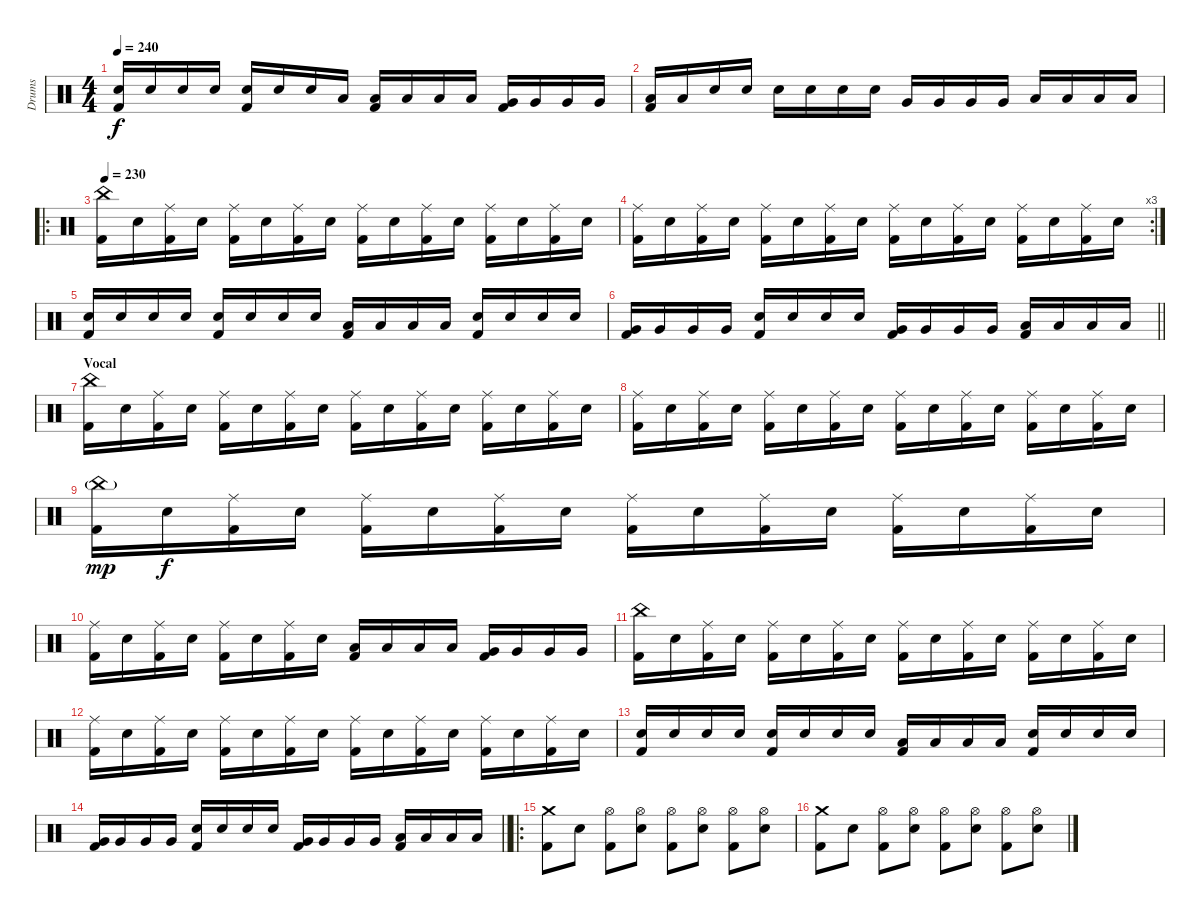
\track ("Drums" "Drums") {instrument percussion}
\staff {score}
\articulation defaults
\ts (4 4)
\tempo 240
\clef neutral
\ks c
("Electric Snare (hit)" "Kick (hit) 2").16{dy f} "Electric Snare (hit)".16 "Electric Snare (hit)".16 "Electric Snare (hit)".16 ("Electric Snare (hit)" "Kick (hit) 2").16 "Electric Snare (hit)".16 "Electric Snare (hit)".16 "Low Tom (hit)".16 ("Low Tom (hit)" "Kick (hit) 2").16 "Low Tom (hit)".16 "Low Tom (hit)".16 "Low Tom (hit)".16 ("Very Low Tom (hit)" "Kick (hit) 2").16 "Very Low Tom (hit)".16 "Very Low Tom (hit)".16 "Very Low Tom (hit)".16 |
("Low Floor Tom (hit)" "Kick (hit) 2").16 "Low Floor Tom (hit)".16 "Electric Snare (hit)".16 "Electric Snare (hit)".16 "Electric Snare (hit)".16 "Electric Snare (hit)".16 "Electric Snare (hit)".16 "Electric Snare (hit)".16 "Very Low Tom (hit)".16 "Very Low Tom (hit)".16 "Very Low Tom (hit)".16 "Very Low Tom (hit)".16 "Low Floor Tom (hit)".16 "Low Floor Tom (hit)".16 "Low Floor Tom (hit)".16 "Low Floor Tom (hit)".16 |
\ro
\tempo 230
("China (hit)" "Kick (hit) 2").16 "Electric Snare (hit)".16 ("Ride (middle)" "Kick (hit) 2").16 "Electric Snare (hit)".16 ("Ride (middle)" "Kick (hit) 2").16 "Electric Snare (hit)".16 ("Ride (middle)" "Kick (hit) 2").16 "Electric Snare (hit)".16 ("Ride (middle)" "Kick (hit) 2").16 "Electric Snare (hit)".16 ("Ride (middle)" "Kick (hit) 2").16 "Electric Snare (hit)".16 ("Ride (middle)" "Kick (hit) 2").16 "Electric Snare (hit)".16 ("Ride (middle)" "Kick (hit) 2").16 "Electric Snare (hit)".16 |
\rc 3
("Ride (middle)" "Kick (hit) 2").16 "Electric Snare (hit)".16 ("Ride (middle)" "Kick (hit) 2").16 "Electric Snare (hit)".16 ("Ride (middle)" "Kick (hit) 2").16 "Electric Snare (hit)".16 ("Ride (middle)" "Kick (hit) 2").16 "Electric Snare (hit)".16 ("Ride (middle)" "Kick (hit) 2").16 "Electric Snare (hit)".16 ("Ride (middle)" "Kick (hit) 2").16 "Electric Snare (hit)".16 ("Ride (middle)" "Kick (hit) 2").16 "Electric Snare (hit)".16 ("Ride (middle)" "Kick (hit) 2").16 "Electric Snare (hit)".16 |
("Electric Snare (hit)" "Kick (hit) 2").16 "Electric Snare (hit)".16 "Electric Snare (hit)".16 "Electric Snare (hit)".16 ("Electric Snare (hit)" "Kick (hit) 2").16 "Electric Snare (hit)".16 "Electric Snare (hit)".16 "Electric Snare (hit)".16 ("Low Tom (hit)" "Kick (hit) 2").16 "Low Tom (hit)".16 "Low Tom (hit)".16 "Low Tom (hit)".16 ("Electric Snare (hit)" "Kick (hit) 2").16 "Electric Snare (hit)".16 "Electric Snare (hit)".16 "Electric Snare (hit)".16 |
\barLineRight lightlight
("Very Low Tom (hit)" "Kick (hit) 2").16 "Very Low Tom (hit)".16 "Very Low Tom (hit)".16 "Very Low Tom (hit)".16 ("Electric Snare (hit)" "Kick (hit) 2").16 "Electric Snare (hit)".16 "Electric Snare (hit)".16 "Electric Snare (hit)".16 ("Very Low Tom (hit)" "Kick (hit) 2").16 "Very Low Tom (hit)".16 "Very Low Tom (hit)".16 "Very Low Tom (hit)".16 ("Low Floor Tom (hit)" "Kick (hit) 2").16 "Low Floor Tom (hit)".16 "Low Floor Tom (hit)".16 "Low Floor Tom (hit)".16 |
\section ("" "Vocal")
("China (hit)" "Kick (hit) 2").16 "Electric Snare (hit)".16 ("Ride (middle)" "Kick (hit) 2").16 "Electric Snare (hit)".16 ("Ride (middle)" "Kick (hit) 2").16 "Electric Snare (hit)".16 ("Ride (middle)" "Kick (hit) 2").16 "Electric Snare (hit)".16 ("Ride (middle)" "Kick (hit) 2").16 "Electric Snare (hit)".16 ("Ride (middle)" "Kick (hit) 2").16 "Electric Snare (hit)".16 ("Ride (middle)" "Kick (hit) 2").16 "Electric Snare (hit)".16 ("Ride (middle)" "Kick (hit) 2").16 "Electric Snare (hit)".16 |
("Ride (middle)" "Kick (hit) 2").16 "Electric Snare (hit)".16 ("Ride (middle)" "Kick (hit) 2").16 "Electric Snare (hit)".16 ("Ride (middle)" "Kick (hit) 2").16 "Electric Snare (hit)".16 ("Ride (middle)" "Kick (hit) 2").16 "Electric Snare (hit)".16 ("Ride (middle)" "Kick (hit) 2").16 "Electric Snare (hit)".16 ("Ride (middle)" "Kick (hit) 2").16 "Electric Snare (hit)".16 ("Ride (middle)" "Kick (hit) 2").16 "Electric Snare (hit)".16 ("Ride (middle)" "Kick (hit) 2").16 "Electric Snare (hit)".16 |
("China (hit)"{g} "Kick (hit) 2").16{dy mp} "Electric Snare (hit)".16{dy f} ("Ride (middle)" "Kick (hit) 2").16 "Electric Snare (hit)".16 ("Ride (middle)" "Kick (hit) 2").16 "Electric Snare (hit)".16 ("Ride (middle)" "Kick (hit) 2").16 "Electric Snare (hit)".16 ("Ride (middle)" "Kick (hit) 2").16 "Electric Snare (hit)".16 ("Ride (middle)" "Kick (hit) 2").16 "Electric Snare (hit)".16 ("Ride (middle)" "Kick (hit) 2").16 "Electric Snare (hit)".16 ("Ride (middle)" "Kick (hit) 2").16 "Electric Snare (hit)".16 |
("Ride (middle)" "Kick (hit) 2").16 "Electric Snare (hit)".16 ("Ride (middle)" "Kick (hit) 2").16 "Electric Snare (hit)".16 ("Ride (middle)" "Kick (hit) 2").16 "Electric Snare (hit)".16 ("Ride (middle)" "Kick (hit) 2").16 "Electric Snare (hit)".16 ("Low Tom (hit)" "Kick (hit) 2").16 "Low Tom (hit)".16 "Low Tom (hit)".16 "Low Tom (hit)".16 ("Very Low Tom (hit)" "Kick (hit) 2").16 "Very Low Tom (hit)".16 "Very Low Tom (hit)".16 "Very Low Tom (hit)".16 |
("China (hit)" "Kick (hit) 2").16 "Electric Snare (hit)".16 ("Ride (middle)" "Kick (hit) 2").16 "Electric Snare (hit)".16 ("Ride (middle)" "Kick (hit) 2").16 "Electric Snare (hit)".16 ("Ride (middle)" "Kick (hit) 2").16 "Electric Snare (hit)".16 ("Ride (middle)" "Kick (hit) 2").16 "Electric Snare (hit)".16 ("Ride (middle)" "Kick (hit) 2").16 "Electric Snare (hit)".16 ("Ride (middle)" "Kick (hit) 2").16 "Electric Snare (hit)".16 ("Ride (middle)" "Kick (hit) 2").16 "Electric Snare (hit)".16 |
("Ride (middle)" "Kick (hit) 2").16 "Electric Snare (hit)".16 ("Ride (middle)" "Kick (hit) 2").16 "Electric Snare (hit)".16 ("Ride (middle)" "Kick (hit) 2").16 "Electric Snare (hit)".16 ("Ride (middle)" "Kick (hit) 2").16 "Electric Snare (hit)".16 ("Ride (middle)" "Kick (hit) 2").16 "Electric Snare (hit)".16 ("Ride (middle)" "Kick (hit) 2").16 "Electric Snare (hit)".16 ("Ride (middle)" "Kick (hit) 2").16 "Electric Snare (hit)".16 ("Ride (middle)" "Kick (hit) 2").16 "Electric Snare (hit)".16 |
("Electric Snare (hit)" "Kick (hit) 2").16 "Electric Snare (hit)".16 "Electric Snare (hit)".16 "Electric Snare (hit)".16 ("Electric Snare (hit)" "Kick (hit) 2").16 "Electric Snare (hit)".16 "Electric Snare (hit)".16 "Electric Snare (hit)".16 ("Low Tom (hit)" "Kick (hit) 2").16 "Low Tom (hit)".16 "Low Tom (hit)".16 "Low Tom (hit)".16 ("Electric Snare (hit)" "Kick (hit) 2").16 "Electric Snare (hit)".16 "Electric Snare (hit)".16 "Electric Snare (hit)".16 |
\barLineRight lightlight
("Very Low Tom (hit)" "Kick (hit) 2").16 "Very Low Tom (hit)".16 "Very Low Tom (hit)".16 "Very Low Tom (hit)".16 ("Electric Snare (hit)" "Kick (hit) 2").16 "Electric Snare (hit)".16 "Electric Snare (hit)".16 "Electric Snare (hit)".16 ("Very Low Tom (hit)" "Kick (hit) 2").16 "Very Low Tom (hit)".16 "Very Low Tom (hit)".16 "Very Low Tom (hit)".16 ("Low Floor Tom (hit)" "Kick (hit) 2").16 "Low Floor Tom (hit)".16 "Low Floor Tom (hit)".16 "Low Floor Tom (hit)".16 |
\ro
("Crash medium (hit)" "Kick (hit) 2").8 "Electric Snare (hit)".8 ("Hi-Hat (open)" "Kick (hit) 2").8 ("Hi-Hat (open)" "Electric Snare (hit)").8 ("Hi-Hat (open)" "Kick (hit) 2").8 ("Hi-Hat (open)" "Electric Snare (hit)").8 ("Hi-Hat (open)" "Kick (hit) 2").8 ("Hi-Hat (open)" "Electric Snare (hit)").8 |
("Crash medium (hit)" "Kick (hit) 2").8 "Electric Snare (hit)".8 ("Hi-Hat (open)" "Kick (hit) 2").8 ("Hi-Hat (open)" "Electric Snare (hit)").8 ("Hi-Hat (open)" "Kick (hit) 2").8 ("Hi-Hat (open)" "Electric Snare (hit)").8 ("Hi-Hat (open)" "Kick (hit) 2").8 ("Hi-Hat (open)" "Electric Snare (hit)").8
